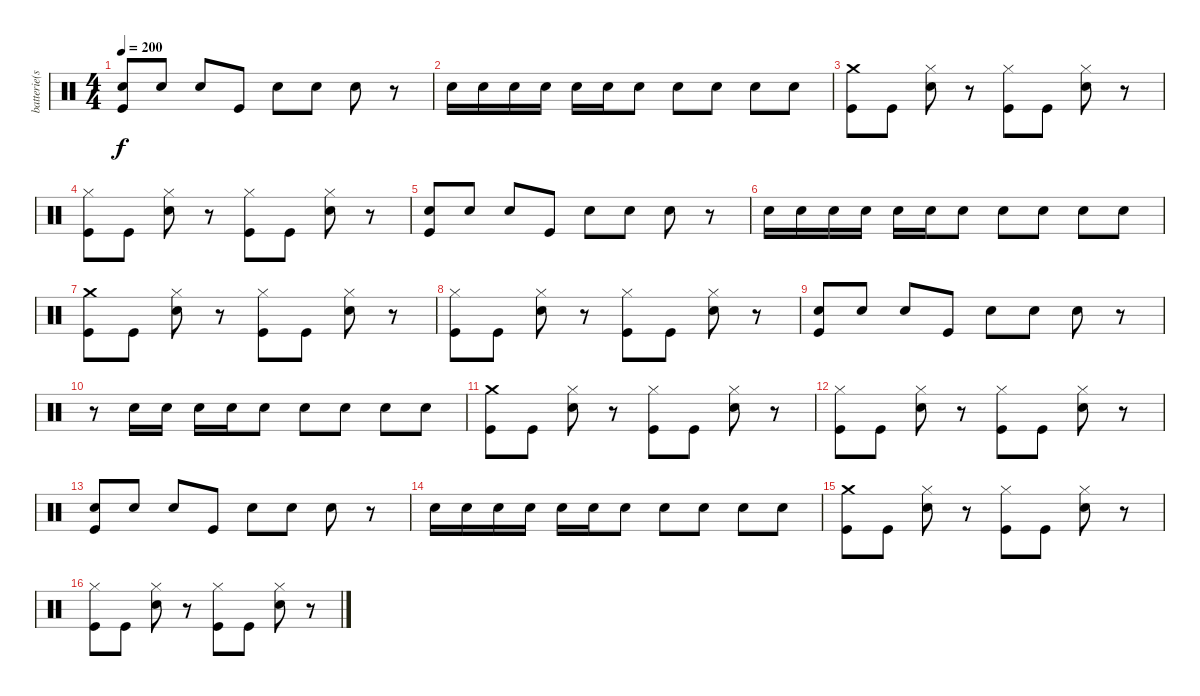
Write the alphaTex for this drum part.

\track ("batterie(scott)" "batterie(s") {instrument percussion}
\staff {score}
\articulation defaults
\ts (4 4)
\tempo 200
\clef neutral
\ks c
("Snare (hit) 2" "Kick (hit)").8{dy f} "Snare (hit) 2".8 "Snare (hit) 2".8 "Kick (hit)".8 "Snare (hit) 2".8 "Snare (hit) 2".8 "Snare (hit) 2".8 r.8 |
"Snare (hit) 2".16 "Snare (hit) 2".16 "Snare (hit) 2".16 "Snare (hit) 2".16 "Snare (hit) 2".16 "Snare (hit) 2".16 "Snare (hit) 2".8 "Snare (hit) 2".8 "Snare (hit) 2".8 "Snare (hit) 2".8 "Snare (hit) 2".8 |
("Crash medium (hit)" "Kick (hit)").8 "Kick (hit)".8 ("Hi-Hat (closed)" "Snare (hit) 2").8 r.8 ("Hi-Hat (closed)" "Kick (hit)").8 "Kick (hit)".8 ("Hi-Hat (closed)" "Snare (hit) 2").8 r.8 |
("Hi-Hat (closed)" "Kick (hit)").8 "Kick (hit)".8 ("Hi-Hat (closed)" "Snare (hit) 2").8 r.8 ("Hi-Hat (closed)" "Kick (hit)").8 "Kick (hit)".8 ("Hi-Hat (closed)" "Snare (hit) 2").8 r.8 |
("Snare (hit) 2" "Kick (hit)").8 "Snare (hit) 2".8 "Snare (hit) 2".8 "Kick (hit)".8 "Snare (hit) 2".8 "Snare (hit) 2".8 "Snare (hit) 2".8 r.8 |
"Snare (hit) 2".16 "Snare (hit) 2".16 "Snare (hit) 2".16 "Snare (hit) 2".16 "Snare (hit) 2".16 "Snare (hit) 2".16 "Snare (hit) 2".8 "Snare (hit) 2".8 "Snare (hit) 2".8 "Snare (hit) 2".8 "Snare (hit) 2".8 |
("Crash medium (hit)" "Kick (hit)").8 "Kick (hit)".8 ("Hi-Hat (closed)" "Snare (hit) 2").8 r.8 ("Hi-Hat (closed)" "Kick (hit)").8 "Kick (hit)".8 ("Hi-Hat (closed)" "Snare (hit) 2").8 r.8 |
("Hi-Hat (closed)" "Kick (hit)").8 "Kick (hit)".8 ("Hi-Hat (closed)" "Snare (hit) 2").8 r.8 ("Hi-Hat (closed)" "Kick (hit)").8 "Kick (hit)".8 ("Hi-Hat (closed)" "Snare (hit) 2").8 r.8 |
("Snare (hit) 2" "Kick (hit)").8 "Snare (hit) 2".8 "Snare (hit) 2".8 "Kick (hit)".8 "Snare (hit) 2".8 "Snare (hit) 2".8 "Snare (hit) 2".8 r.8 |
r.8 "Snare (hit) 2".16 "Snare (hit) 2".16 "Snare (hit) 2".16 "Snare (hit) 2".16 "Snare (hit) 2".8 "Snare (hit) 2".8 "Snare (hit) 2".8 "Snare (hit) 2".8 "Snare (hit) 2".8 |
("Crash medium (hit)" "Kick (hit)").8 "Kick (hit)".8 ("Hi-Hat (closed)" "Snare (hit) 2").8 r.8 ("Hi-Hat (closed)" "Kick (hit)").8 "Kick (hit)".8 ("Hi-Hat (closed)" "Snare (hit) 2").8 r.8 |
("Hi-Hat (closed)" "Kick (hit)").8 "Kick (hit)".8 ("Hi-Hat (closed)" "Snare (hit) 2").8 r.8 ("Hi-Hat (closed)" "Kick (hit)").8 "Kick (hit)".8 ("Hi-Hat (closed)" "Snare (hit) 2").8 r.8 |
("Snare (hit) 2" "Kick (hit)").8 "Snare (hit) 2".8 "Snare (hit) 2".8 "Kick (hit)".8 "Snare (hit) 2".8 "Snare (hit) 2".8 "Snare (hit) 2".8 r.8 |
"Snare (hit) 2".16 "Snare (hit) 2".16 "Snare (hit) 2".16 "Snare (hit) 2".16 "Snare (hit) 2".16 "Snare (hit) 2".16 "Snare (hit) 2".8 "Snare (hit) 2".8 "Snare (hit) 2".8 "Snare (hit) 2".8 "Snare (hit) 2".8 |
("Crash medium (hit)" "Kick (hit)").8 "Kick (hit)".8 ("Hi-Hat (closed)" "Snare (hit) 2").8 r.8 ("Hi-Hat (closed)" "Kick (hit)").8 "Kick (hit)".8 ("Hi-Hat (closed)" "Snare (hit) 2").8 r.8 |
("Hi-Hat (closed)" "Kick (hit)").8 "Kick (hit)".8 ("Hi-Hat (closed)" "Snare (hit) 2").8 r.8 ("Hi-Hat (closed)" "Kick (hit)").8 "Kick (hit)".8 ("Hi-Hat (closed)" "Snare (hit) 2").8 r.8
